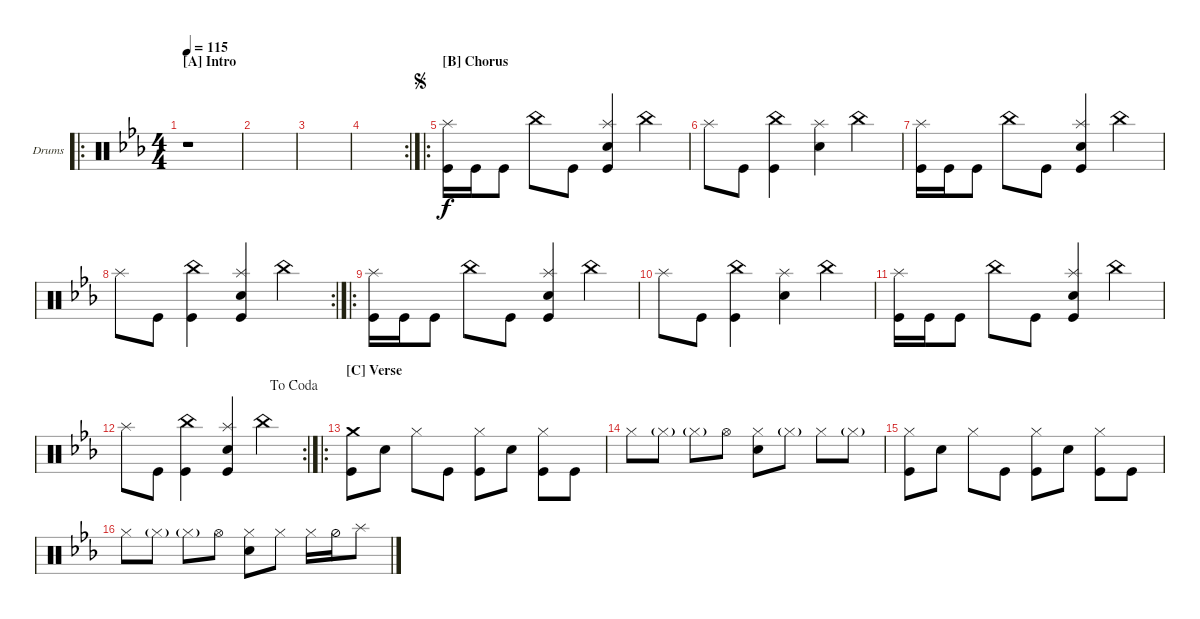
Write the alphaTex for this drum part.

\bracketExtendMode groupsimilarinstruments
\firstSystemTrackNameOrientation horizontal
\otherSystemsTrackNameOrientation horizontal
\track ("Drumkit" "Drums") {instrument percussion}
\staff {score}
\articulation defaults
\ro
\ts (4 4)
\section ("A" "Intro")
\tempo 115
\clef neutral
\ks cminor
r.1{dy f} |
|
|
\rc 2
|
\ro
\section ("B" "Chorus")
\jump segno
("Kick (hit)" "Splash (hit)").16 "Kick (hit)".16 "Kick (hit)".8 "China (hit)".8 "Kick (hit)".8 ("Snare (hit) 2" "Kick (hit)" "Splash (hit)").4 "China (hit)".4 |
"Splash (hit)".8 "Kick (hit)".8 ("Kick (hit)" "China (hit)").4 ("Splash (hit)" "Snare (hit) 2").4 "China (hit)".4 |
("Kick (hit)" "Splash (hit)").16 "Kick (hit)".16 "Kick (hit)".8 "China (hit)".8 "Kick (hit)".8 ("Snare (hit) 2" "Kick (hit)" "Splash (hit)").4 "China (hit)".4 |
\rc 2 "Splash (hit)".8 "Kick (hit)".8
("Kick (hit)" "China (hit)").4 ("Kick (hit)" "Splash (hit)" "Snare (hit) 2").4 "China (hit)".4 |
\ro
("Kick (hit)" "Splash (hit)").16 "Kick (hit)".16 "Kick (hit)".8 "China (hit)".8 "Kick (hit)".8 ("Snare (hit) 2" "Kick (hit)" "Splash (hit)").4 "China (hit)".4 |
"Splash (hit)".8 "Kick (hit)".8 ("Kick (hit)" "China (hit)").4 ("Splash (hit)" "Snare (hit) 2").4 "China (hit)".4 |
("Kick (hit)" "Splash (hit)").16 "Kick (hit)".16 "Kick (hit)".8 "China (hit)".8 "Kick (hit)".8 ("Snare (hit) 2" "Kick (hit)" "Splash (hit)").4 "China (hit)".4 |
\rc 2
\jump dacoda "Splash (hit)".8 "Kick (hit)".8
("Kick (hit)" "China (hit)").4 ("Kick (hit)" "Splash (hit)" "Snare (hit) 2").4 "China (hit)".4 |
\ro
\section ("C" "Verse")
("Kick (hit)" "Crash medium (hit)").8 "Snare (hit) 2".8 "Hi-Hat (closed)".8 "Kick (hit)".8 ("Kick (hit)" "Hi-Hat (closed)").8 "Snare (hit) 2".8 ("Kick (hit)" "Hi-Hat (closed)").8 "Kick (hit)".8 |
"Hi-Hat (closed)".8 "Hi-Hat (closed)"{g}.8 "Hi-Hat (closed)"{g}.8 "Hi-Hat (open)".8 ("Snare (hit) 2" "Hi-Hat (closed)").8 "Hi-Hat (closed)"{g}.8 "Hi-Hat (closed)".8 "Hi-Hat (closed)"{g}.8 |
("Kick (hit)" "Hi-Hat (closed)").8 "Snare (hit) 2".8 "Hi-Hat (closed)".8 "Kick (hit)".8 ("Kick (hit)" "Hi-Hat (closed)").8 "Snare (hit) 2".8 ("Kick (hit)" "Hi-Hat (closed)").8 "Kick (hit)".8 |
"Hi-Hat (closed)".8 "Hi-Hat (closed)"{g}.8 "Hi-Hat (closed)"{g}.8 "Hi-Hat (open)".8 ("Snare (hit) 2" "Hi-Hat (closed)").8 "Hi-Hat (closed)".8 "Hi-Hat (closed)".16 "Hi-Hat (half)".16 "Splash (hit)".8
